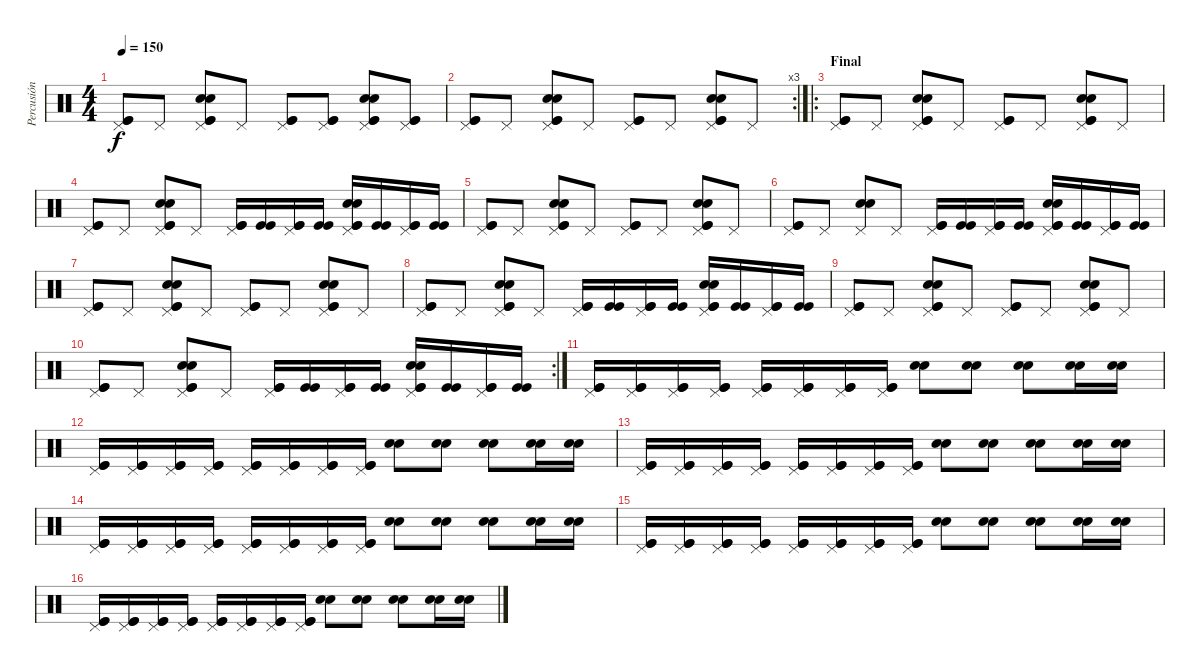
\track ("Percusión" "Percusión") {instrument percussion}
\staff {score}
\articulation defaults
\ts (4 4)
\tempo 150
\clef neutral
\ks c
("Pedal Hi-Hat (hit)" "Kick (hit)" "Kick (hit)").8{dy f} "Pedal Hi-Hat (hit)".8 ("Pedal Hi-Hat (hit)" "Snare (hit) 2" "Snare (hit) 2" "Kick (hit)" "Kick (hit)").8 "Pedal Hi-Hat (hit)".8 ("Pedal Hi-Hat (hit)" "Kick (hit)" "Kick (hit)").8 ("Pedal Hi-Hat (hit)" "Kick (hit)" "Kick (hit)").8 ("Pedal Hi-Hat (hit)" "Snare (hit) 2" "Snare (hit) 2" "Kick (hit)" "Kick (hit)").8 ("Pedal Hi-Hat (hit)" "Kick (hit)" "Kick (hit)").8 |
\rc 3
("Pedal Hi-Hat (hit)" "Kick (hit)" "Kick (hit)").8 "Pedal Hi-Hat (hit)".8 ("Pedal Hi-Hat (hit)" "Snare (hit) 2" "Snare (hit) 2" "Kick (hit)" "Kick (hit)").8 "Pedal Hi-Hat (hit)".8 ("Pedal Hi-Hat (hit)" "Kick (hit)" "Kick (hit)").8 "Pedal Hi-Hat (hit)".8 ("Pedal Hi-Hat (hit)" "Snare (hit) 2" "Snare (hit) 2" "Kick (hit)" "Kick (hit)").8 "Pedal Hi-Hat (hit)".8 |
\ro
\section ("" "Final")
("Pedal Hi-Hat (hit)" "Kick (hit)" "Kick (hit)").8 "Pedal Hi-Hat (hit)".8 ("Pedal Hi-Hat (hit)" "Snare (hit) 2" "Snare (hit) 2" "Kick (hit)" "Kick (hit)").8 "Pedal Hi-Hat (hit)".8 ("Pedal Hi-Hat (hit)" "Kick (hit)" "Kick (hit)").8 "Pedal Hi-Hat (hit)".8 ("Pedal Hi-Hat (hit)" "Snare (hit) 2" "Snare (hit) 2" "Kick (hit)" "Kick (hit)").8 "Pedal Hi-Hat (hit)".8 |
("Pedal Hi-Hat (hit)" "Kick (hit)" "Kick (hit)").8 "Pedal Hi-Hat (hit)".8 ("Pedal Hi-Hat (hit)" "Snare (hit) 2" "Snare (hit) 2" "Kick (hit)" "Kick (hit)").8 "Pedal Hi-Hat (hit)".8 ("Pedal Hi-Hat (hit)" "Kick (hit)" "Kick (hit)").16 ("Kick (hit)" "Kick (hit)").16 ("Pedal Hi-Hat (hit)" "Kick (hit)" "Kick (hit)").16 ("Kick (hit)" "Kick (hit)").16 ("Pedal Hi-Hat (hit)" "Kick (hit)" "Kick (hit)" "Snare (hit) 2" "Snare (hit) 2").16 ("Kick (hit)" "Kick (hit)").16 ("Pedal Hi-Hat (hit)" "Kick (hit)" "Kick (hit)").16 ("Kick (hit)" "Kick (hit)").16 |
("Pedal Hi-Hat (hit)" "Kick (hit)" "Kick (hit)").8 "Pedal Hi-Hat (hit)".8 ("Pedal Hi-Hat (hit)" "Snare (hit) 2" "Snare (hit) 2" "Kick (hit)" "Kick (hit)").8 "Pedal Hi-Hat (hit)".8 ("Pedal Hi-Hat (hit)" "Kick (hit)" "Kick (hit)").8 "Pedal Hi-Hat (hit)".8 ("Pedal Hi-Hat (hit)" "Snare (hit) 2" "Snare (hit) 2" "Kick (hit)" "Kick (hit)").8 "Pedal Hi-Hat (hit)".8 |
("Pedal Hi-Hat (hit)" "Kick (hit)" "Kick (hit)").8 "Pedal Hi-Hat (hit)".8 ("Pedal Hi-Hat (hit)" "Snare (hit) 2" "Snare (hit) 2").8 "Pedal Hi-Hat (hit)".8 ("Pedal Hi-Hat (hit)" "Kick (hit)" "Kick (hit)").16 ("Kick (hit)" "Kick (hit)").16 ("Pedal Hi-Hat (hit)" "Kick (hit)" "Kick (hit)").16 ("Kick (hit)" "Kick (hit)").16 ("Pedal Hi-Hat (hit)" "Kick (hit)" "Kick (hit)" "Snare (hit) 2" "Snare (hit) 2").16 ("Kick (hit)" "Kick (hit)").16 ("Pedal Hi-Hat (hit)" "Kick (hit)" "Kick (hit)").16 ("Kick (hit)" "Kick (hit)").16 |
("Pedal Hi-Hat (hit)" "Kick (hit)" "Kick (hit)").8 "Pedal Hi-Hat (hit)".8 ("Pedal Hi-Hat (hit)" "Snare (hit) 2" "Snare (hit) 2" "Kick (hit)" "Kick (hit)").8 "Pedal Hi-Hat (hit)".8 ("Pedal Hi-Hat (hit)" "Kick (hit)" "Kick (hit)").8 "Pedal Hi-Hat (hit)".8 ("Pedal Hi-Hat (hit)" "Snare (hit) 2" "Snare (hit) 2" "Kick (hit)" "Kick (hit)").8 "Pedal Hi-Hat (hit)".8 |
("Pedal Hi-Hat (hit)" "Kick (hit)" "Kick (hit)").8 "Pedal Hi-Hat (hit)".8 ("Pedal Hi-Hat (hit)" "Snare (hit) 2" "Snare (hit) 2" "Kick (hit)" "Kick (hit)").8 "Pedal Hi-Hat (hit)".8 ("Pedal Hi-Hat (hit)" "Kick (hit)" "Kick (hit)").16 ("Kick (hit)" "Kick (hit)").16 ("Pedal Hi-Hat (hit)" "Kick (hit)" "Kick (hit)").16 ("Kick (hit)" "Kick (hit)").16 ("Pedal Hi-Hat (hit)" "Kick (hit)" "Kick (hit)" "Snare (hit) 2" "Snare (hit) 2").16 ("Kick (hit)" "Kick (hit)").16 ("Pedal Hi-Hat (hit)" "Kick (hit)" "Kick (hit)").16 ("Kick (hit)" "Kick (hit)").16 |
("Pedal Hi-Hat (hit)" "Kick (hit)" "Kick (hit)").8 "Pedal Hi-Hat (hit)".8 ("Pedal Hi-Hat (hit)" "Snare (hit) 2" "Snare (hit) 2" "Kick (hit)" "Kick (hit)").8 "Pedal Hi-Hat (hit)".8 ("Pedal Hi-Hat (hit)" "Kick (hit)" "Kick (hit)").8 "Pedal Hi-Hat (hit)".8 ("Pedal Hi-Hat (hit)" "Snare (hit) 2" "Snare (hit) 2" "Kick (hit)" "Kick (hit)").8 "Pedal Hi-Hat (hit)".8 |
\rc 2
("Pedal Hi-Hat (hit)" "Kick (hit)" "Kick (hit)").8 "Pedal Hi-Hat (hit)".8 ("Pedal Hi-Hat (hit)" "Snare (hit) 2" "Snare (hit) 2" "Kick (hit)" "Kick (hit)").8 "Pedal Hi-Hat (hit)".8 ("Pedal Hi-Hat (hit)" "Kick (hit)" "Kick (hit)").16 ("Kick (hit)" "Kick (hit)").16 ("Pedal Hi-Hat (hit)" "Kick (hit)" "Kick (hit)").16 ("Kick (hit)" "Kick (hit)").16 ("Pedal Hi-Hat (hit)" "Kick (hit)" "Kick (hit)" "Snare (hit) 2" "Snare (hit) 2").16 ("Kick (hit)" "Kick (hit)").16 ("Pedal Hi-Hat (hit)" "Kick (hit)" "Kick (hit)").16 ("Kick (hit)" "Kick (hit)").16 |
("Pedal Hi-Hat (hit)" "Kick (hit)" "Kick (hit)").16 ("Pedal Hi-Hat (hit)" "Kick (hit)" "Kick (hit)").16 ("Pedal Hi-Hat (hit)" "Kick (hit)" "Kick (hit)").16 ("Pedal Hi-Hat (hit)" "Kick (hit)" "Kick (hit)").16 ("Pedal Hi-Hat (hit)" "Kick (hit)" "Kick (hit)").16 ("Pedal Hi-Hat (hit)" "Kick (hit)" "Kick (hit)").16 ("Pedal Hi-Hat (hit)" "Kick (hit)" "Kick (hit)").16 ("Pedal Hi-Hat (hit)" "Kick (hit)" "Kick (hit)").16 ("Snare (hit) 2" "Snare (hit) 2").8 ("Snare (hit) 2" "Snare (hit) 2").8 ("Snare (hit) 2" "Snare (hit) 2").8 ("Snare (hit) 2" "Snare (hit) 2").16 ("Snare (hit) 2" "Snare (hit) 2").16 |
("Pedal Hi-Hat (hit)" "Kick (hit)" "Kick (hit)").16 ("Pedal Hi-Hat (hit)" "Kick (hit)" "Kick (hit)").16 ("Pedal Hi-Hat (hit)" "Kick (hit)" "Kick (hit)").16 ("Pedal Hi-Hat (hit)" "Kick (hit)" "Kick (hit)").16 ("Pedal Hi-Hat (hit)" "Kick (hit)" "Kick (hit)").16 ("Pedal Hi-Hat (hit)" "Kick (hit)" "Kick (hit)").16 ("Pedal Hi-Hat (hit)" "Kick (hit)" "Kick (hit)").16 ("Pedal Hi-Hat (hit)" "Kick (hit)" "Kick (hit)").16 ("Snare (hit) 2" "Snare (hit) 2").8 ("Snare (hit) 2" "Snare (hit) 2").8 ("Snare (hit) 2" "Snare (hit) 2").8 ("Snare (hit) 2" "Snare (hit) 2").16 ("Snare (hit) 2" "Snare (hit) 2").16 |
("Pedal Hi-Hat (hit)" "Kick (hit)" "Kick (hit)").16{volume 13} ("Pedal Hi-Hat (hit)" "Kick (hit)" "Kick (hit)").16 ("Pedal Hi-Hat (hit)" "Kick (hit)" "Kick (hit)").16 ("Pedal Hi-Hat (hit)" "Kick (hit)" "Kick (hit)").16 ("Pedal Hi-Hat (hit)" "Kick (hit)" "Kick (hit)").16 ("Pedal Hi-Hat (hit)" "Kick (hit)" "Kick (hit)").16 ("Pedal Hi-Hat (hit)" "Kick (hit)" "Kick (hit)").16 ("Pedal Hi-Hat (hit)" "Kick (hit)" "Kick (hit)").16 ("Snare (hit) 2" "Snare (hit) 2").8 ("Snare (hit) 2" "Snare (hit) 2").8 ("Snare (hit) 2" "Snare (hit) 2").8 ("Snare (hit) 2" "Snare (hit) 2").16 ("Snare (hit) 2" "Snare (hit) 2").16 |
("Pedal Hi-Hat (hit)" "Kick (hit)" "Kick (hit)").16{volume 11} ("Pedal Hi-Hat (hit)" "Kick (hit)" "Kick (hit)").16 ("Pedal Hi-Hat (hit)" "Kick (hit)" "Kick (hit)").16 ("Pedal Hi-Hat (hit)" "Kick (hit)" "Kick (hit)").16 ("Pedal Hi-Hat (hit)" "Kick (hit)" "Kick (hit)").16 ("Pedal Hi-Hat (hit)" "Kick (hit)" "Kick (hit)").16 ("Pedal Hi-Hat (hit)" "Kick (hit)" "Kick (hit)").16 ("Pedal Hi-Hat (hit)" "Kick (hit)" "Kick (hit)").16 ("Snare (hit) 2" "Snare (hit) 2").8 ("Snare (hit) 2" "Snare (hit) 2").8 ("Snare (hit) 2" "Snare (hit) 2").8 ("Snare (hit) 2" "Snare (hit) 2").16 ("Snare (hit) 2" "Snare (hit) 2").16 |
("Pedal Hi-Hat (hit)" "Kick (hit)" "Kick (hit)").16{volume 10} ("Pedal Hi-Hat (hit)" "Kick (hit)" "Kick (hit)").16 ("Pedal Hi-Hat (hit)" "Kick (hit)" "Kick (hit)").16 ("Pedal Hi-Hat (hit)" "Kick (hit)" "Kick (hit)").16 ("Pedal Hi-Hat (hit)" "Kick (hit)" "Kick (hit)").16 ("Pedal Hi-Hat (hit)" "Kick (hit)" "Kick (hit)").16 ("Pedal Hi-Hat (hit)" "Kick (hit)" "Kick (hit)").16 ("Pedal Hi-Hat (hit)" "Kick (hit)" "Kick (hit)").16 ("Snare (hit) 2" "Snare (hit) 2").8 ("Snare (hit) 2" "Snare (hit) 2").8 ("Snare (hit) 2" "Snare (hit) 2").8 ("Snare (hit) 2" "Snare (hit) 2").16 ("Snare (hit) 2" "Snare (hit) 2").16 |
("Pedal Hi-Hat (hit)" "Kick (hit)" "Kick (hit)").16{volume 7} ("Pedal Hi-Hat (hit)" "Kick (hit)" "Kick (hit)").16 ("Pedal Hi-Hat (hit)" "Kick (hit)" "Kick (hit)").16 ("Pedal Hi-Hat (hit)" "Kick (hit)" "Kick (hit)").16 ("Pedal Hi-Hat (hit)" "Kick (hit)" "Kick (hit)").16 ("Pedal Hi-Hat (hit)" "Kick (hit)" "Kick (hit)").16 ("Pedal Hi-Hat (hit)" "Kick (hit)" "Kick (hit)").16{volume 6} ("Pedal Hi-Hat (hit)" "Kick (hit)" "Kick (hit)").16 ("Snare (hit) 2" "Snare (hit) 2").8 ("Snare (hit) 2" "Snare (hit) 2").8{volume 4} ("Snare (hit) 2" "Snare (hit) 2").8 ("Snare (hit) 2" "Snare (hit) 2").16{volume 3} ("Snare (hit) 2" "Snare (hit) 2").16
